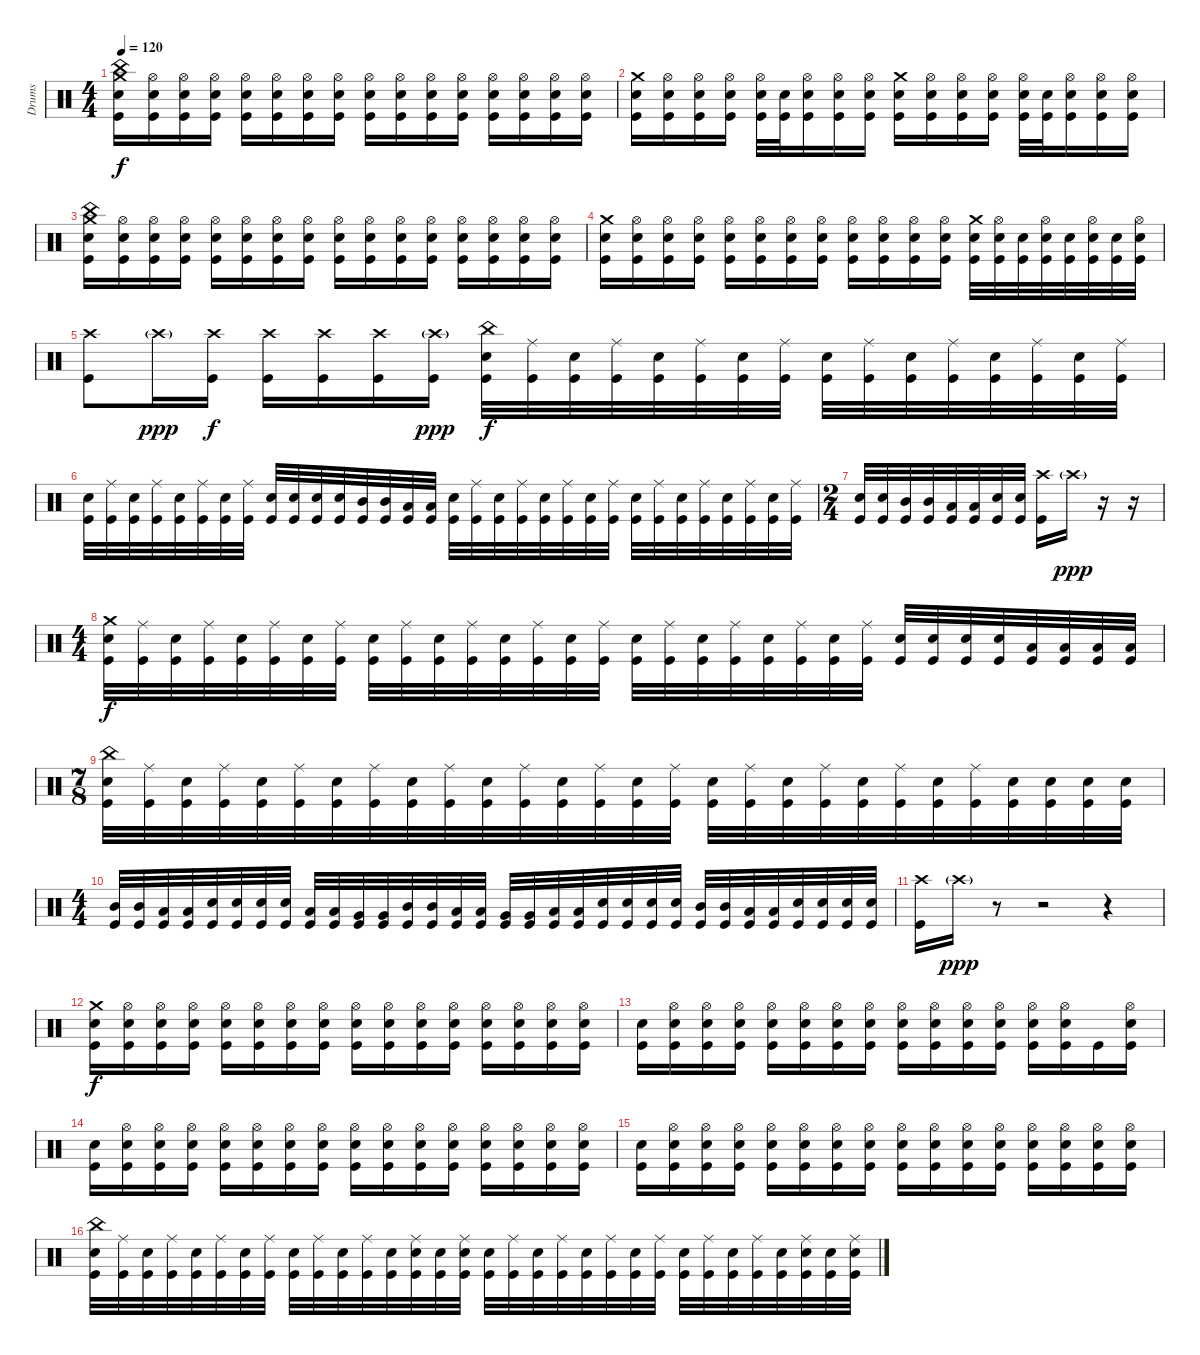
\track ("Drums" "Drums") {instrument percussion}
\staff {score}
\articulation defaults
\ts (4 4)
\tempo 120
\clef neutral
\ks c
("Crash medium (hit)" "China (hit)" "Electric Snare (hit)" "Kick (hit)").16{dy f} ("Hi-Hat (open)" "Electric Snare (hit)" "Kick (hit)").16 ("Hi-Hat (open)" "Electric Snare (hit)" "Kick (hit)").16 ("Hi-Hat (open)" "Electric Snare (hit)" "Kick (hit)").16 ("Hi-Hat (open)" "Electric Snare (hit)" "Kick (hit)").16 ("Hi-Hat (open)" "Electric Snare (hit)" "Kick (hit)").16 ("Hi-Hat (open)" "Electric Snare (hit)" "Kick (hit)").16 ("Hi-Hat (open)" "Electric Snare (hit)" "Kick (hit)").16 ("Hi-Hat (open)" "Electric Snare (hit)" "Kick (hit)").16 ("Hi-Hat (open)" "Electric Snare (hit)" "Kick (hit)").16 ("Hi-Hat (open)" "Electric Snare (hit)" "Kick (hit)").16 ("Hi-Hat (open)" "Electric Snare (hit)" "Kick (hit)").16 ("Hi-Hat (open)" "Electric Snare (hit)" "Kick (hit)").16 ("Hi-Hat (open)" "Electric Snare (hit)" "Kick (hit)").16 ("Hi-Hat (open)" "Electric Snare (hit)" "Kick (hit)").16 ("Hi-Hat (open)" "Electric Snare (hit)" "Kick (hit)").16 |
("Crash medium (hit)" "Electric Snare (hit)" "Kick (hit)").16 ("Hi-Hat (open)" "Electric Snare (hit)" "Kick (hit)").16 ("Hi-Hat (open)" "Electric Snare (hit)" "Kick (hit)").16 ("Hi-Hat (open)" "Electric Snare (hit)" "Kick (hit)").16 ("Hi-Hat (open)" "Electric Snare (hit)" "Kick (hit)").32 ("Electric Snare (hit)" "Kick (hit)").32 ("Hi-Hat (open)" "Electric Snare (hit)" "Kick (hit)").16 ("Hi-Hat (open)" "Electric Snare (hit)" "Kick (hit)").16 ("Hi-Hat (open)" "Electric Snare (hit)" "Kick (hit)").16 ("Crash medium (hit)" "Electric Snare (hit)" "Kick (hit)").16 ("Hi-Hat (open)" "Electric Snare (hit)" "Kick (hit)").16 ("Hi-Hat (open)" "Electric Snare (hit)" "Kick (hit)").16 ("Hi-Hat (open)" "Electric Snare (hit)" "Kick (hit)").16 ("Hi-Hat (open)" "Electric Snare (hit)" "Kick (hit)").32 ("Electric Snare (hit)" "Kick (hit)").32 ("Hi-Hat (open)" "Electric Snare (hit)" "Kick (hit)").16 ("Hi-Hat (open)" "Electric Snare (hit)" "Kick (hit)").16 ("Hi-Hat (open)" "Electric Snare (hit)" "Kick (hit)").16 |
("Crash medium (hit)" "China (hit)" "Electric Snare (hit)" "Kick (hit)").16 ("Hi-Hat (open)" "Electric Snare (hit)" "Kick (hit)").16 ("Hi-Hat (open)" "Electric Snare (hit)" "Kick (hit)").16 ("Hi-Hat (open)" "Electric Snare (hit)" "Kick (hit)").16 ("Hi-Hat (open)" "Electric Snare (hit)" "Kick (hit)").16 ("Hi-Hat (open)" "Electric Snare (hit)" "Kick (hit)").16 ("Hi-Hat (open)" "Electric Snare (hit)" "Kick (hit)").16 ("Hi-Hat (open)" "Electric Snare (hit)" "Kick (hit)").16 ("Hi-Hat (open)" "Electric Snare (hit)" "Kick (hit)").16 ("Hi-Hat (open)" "Electric Snare (hit)" "Kick (hit)").16 ("Hi-Hat (open)" "Electric Snare (hit)" "Kick (hit)").16 ("Hi-Hat (open)" "Electric Snare (hit)" "Kick (hit)").16 ("Hi-Hat (open)" "Electric Snare (hit)" "Kick (hit)").16 ("Hi-Hat (open)" "Electric Snare (hit)" "Kick (hit)").16 ("Hi-Hat (open)" "Electric Snare (hit)" "Kick (hit)").16 ("Hi-Hat (open)" "Electric Snare (hit)" "Kick (hit)").16 |
("Crash medium (hit)" "Electric Snare (hit)" "Kick (hit)").16 ("Hi-Hat (open)" "Electric Snare (hit)" "Kick (hit)").16 ("Hi-Hat (open)" "Electric Snare (hit)" "Kick (hit)").16 ("Hi-Hat (open)" "Electric Snare (hit)" "Kick (hit)").16 ("Hi-Hat (open)" "Electric Snare (hit)" "Kick (hit)").16 ("Hi-Hat (open)" "Electric Snare (hit)" "Kick (hit)").16 ("Hi-Hat (open)" "Electric Snare (hit)" "Kick (hit)").16 ("Hi-Hat (open)" "Electric Snare (hit)" "Kick (hit)").16 ("Hi-Hat (open)" "Electric Snare (hit)" "Kick (hit)").16 ("Hi-Hat (open)" "Electric Snare (hit)" "Kick (hit)").16 ("Hi-Hat (open)" "Electric Snare (hit)" "Kick (hit)").16 ("Hi-Hat (open)" "Electric Snare (hit)" "Kick (hit)").16 ("Crash medium (hit)" "Electric Snare (hit)" "Kick (hit)").32 ("Hi-Hat (open)" "Electric Snare (hit)" "Kick (hit)").32 ("Electric Snare (hit)" "Kick (hit)").32 ("Hi-Hat (open)" "Electric Snare (hit)" "Kick (hit)").32 ("Electric Snare (hit)" "Kick (hit)").32 ("Hi-Hat (open)" "Electric Snare (hit)" "Kick (hit)").32 ("Electric Snare (hit)" "Kick (hit)").32 ("Hi-Hat (open)" "Electric Snare (hit)" "Kick (hit)").32 |
("Crash high (hit)" "Kick (hit)").8 "Crash high (hit)"{g}.16{dy ppp} ("Crash high (hit)" "Kick (hit)").16{dy f} ("Crash high (hit)" "Kick (hit)").16 ("Crash high (hit)" "Kick (hit)").16 ("Crash high (hit)" "Kick (hit)").16 ("Crash high (hit)"{g} "Kick (hit)").16{dy ppp} ("China (hit)" "Electric Snare (hit)" "Kick (hit)").32{dy f} ("Ride (middle)" "Kick (hit)").32 ("Electric Snare (hit)" "Kick (hit)").32 ("Ride (middle)" "Kick (hit)").32 ("Electric Snare (hit)" "Kick (hit)").32 ("Ride (middle)" "Kick (hit)").32 ("Electric Snare (hit)" "Kick (hit)").32 ("Ride (middle)" "Kick (hit)").32 ("Electric Snare (hit)" "Kick (hit)").32 ("Ride (middle)" "Kick (hit)").32 ("Electric Snare (hit)" "Kick (hit)").32 ("Ride (middle)" "Kick (hit)").32 ("Electric Snare (hit)" "Kick (hit)").32 ("Ride (middle)" "Kick (hit)").32 ("Electric Snare (hit)" "Kick (hit)").32 ("Ride (middle)" "Kick (hit)").32 |
("Electric Snare (hit)" "Kick (hit)").32 ("Ride (middle)" "Kick (hit)").32 ("Electric Snare (hit)" "Kick (hit)").32 ("Ride (middle)" "Kick (hit)").32 ("Electric Snare (hit)" "Kick (hit)").32 ("Ride (middle)" "Kick (hit)").32 ("Electric Snare (hit)" "Kick (hit)").32 ("Ride (middle)" "Kick (hit)").32 ("Electric Snare (hit)" "Kick (hit)").32 ("Electric Snare (hit)" "Kick (hit)").32 ("Electric Snare (hit)" "Kick (hit)").32 ("Electric Snare (hit)" "Kick (hit)").32 ("Mid Tom (hit)" "Kick (hit)").32 ("Mid Tom (hit)" "Kick (hit)").32 ("Low Tom (hit)" "Kick (hit)").32 ("Low Tom (hit)" "Kick (hit)").32 ("Electric Snare (hit)" "Kick (hit)").32 ("Ride (middle)" "Kick (hit)").32 ("Electric Snare (hit)" "Kick (hit)").32 ("Ride (middle)" "Kick (hit)").32 ("Electric Snare (hit)" "Kick (hit)").32 ("Ride (middle)" "Kick (hit)").32 ("Electric Snare (hit)" "Kick (hit)").32 ("Ride (middle)" "Kick (hit)").32 ("Electric Snare (hit)" "Kick (hit)").32 ("Ride (middle)" "Kick (hit)").32 ("Electric Snare (hit)" "Kick (hit)").32 ("Ride (middle)" "Kick (hit)").32 ("Electric Snare (hit)" "Kick (hit)").32 ("Ride (middle)" "Kick (hit)").32 ("Electric Snare (hit)" "Kick (hit)").32 ("Ride (middle)" "Kick (hit)").32 |
\ts (2 4)
("Electric Snare (hit)" "Kick (hit)").32 ("Electric Snare (hit)" "Kick (hit)").32 ("Mid Tom (hit)" "Kick (hit)").32 ("Mid Tom (hit)" "Kick (hit)").32 ("Low Tom (hit)" "Kick (hit)").32 ("Low Tom (hit)" "Kick (hit)").32 ("Electric Snare (hit)" "Kick (hit)").32 ("Electric Snare (hit)" "Kick (hit)").32 ("Crash high (hit)" "Kick (hit)").16 "Crash high (hit)"{g}.16{dy ppp} r.16 r.16 |
\ts (4 4)
("Crash medium (hit)" "Electric Snare (hit)" "Kick (hit)").32{dy f} ("Ride (middle)" "Kick (hit)").32 ("Electric Snare (hit)" "Kick (hit)").32 ("Ride (middle)" "Kick (hit)").32 ("Electric Snare (hit)" "Kick (hit)").32 ("Ride (middle)" "Kick (hit)").32 ("Electric Snare (hit)" "Kick (hit)").32 ("Ride (middle)" "Kick (hit)").32 ("Electric Snare (hit)" "Kick (hit)").32 ("Ride (middle)" "Kick (hit)").32 ("Electric Snare (hit)" "Kick (hit)").32 ("Ride (middle)" "Kick (hit)").32 ("Electric Snare (hit)" "Kick (hit)").32 ("Ride (middle)" "Kick (hit)").32 ("Electric Snare (hit)" "Kick (hit)").32 ("Ride (middle)" "Kick (hit)").32 ("Electric Snare (hit)" "Kick (hit)").32 ("Ride (middle)" "Kick (hit)").32 ("Electric Snare (hit)" "Kick (hit)").32 ("Ride (middle)" "Kick (hit)").32 ("Electric Snare (hit)" "Kick (hit)").32 ("Ride (middle)" "Kick (hit)").32 ("Electric Snare (hit)" "Kick (hit)").32 ("Ride (middle)" "Kick (hit)").32 ("Electric Snare (hit)" "Kick (hit)").32 ("Electric Snare (hit)" "Kick (hit)").32 ("Electric Snare (hit)" "Kick (hit)").32 ("Electric Snare (hit)" "Kick (hit)").32 ("Low Tom (hit)" "Kick (hit)").32 ("Low Tom (hit)" "Kick (hit)").32 ("Low Tom (hit)" "Kick (hit)").32 ("Low Tom (hit)" "Kick (hit)").32 |
\ts (7 8)
("China (hit)" "Electric Snare (hit)" "Kick (hit)").32 ("Ride (middle)" "Kick (hit)").32 ("Electric Snare (hit)" "Kick (hit)").32 ("Ride (middle)" "Kick (hit)").32 ("Electric Snare (hit)" "Kick (hit)").32 ("Ride (middle)" "Kick (hit)").32 ("Electric Snare (hit)" "Kick (hit)").32 ("Ride (middle)" "Kick (hit)").32 ("Electric Snare (hit)" "Kick (hit)").32 ("Ride (middle)" "Kick (hit)").32 ("Electric Snare (hit)" "Kick (hit)").32 ("Ride (middle)" "Kick (hit)").32 ("Electric Snare (hit)" "Kick (hit)").32 ("Ride (middle)" "Kick (hit)").32 ("Electric Snare (hit)" "Kick (hit)").32 ("Ride (middle)" "Kick (hit)").32 ("Electric Snare (hit)" "Kick (hit)").32 ("Ride (middle)" "Kick (hit)").32 ("Electric Snare (hit)" "Kick (hit)").32 ("Ride (middle)" "Kick (hit)").32 ("Electric Snare (hit)" "Kick (hit)").32 ("Ride (middle)" "Kick (hit)").32 ("Electric Snare (hit)" "Kick (hit)").32 ("Ride (middle)" "Kick (hit)").32 ("Electric Snare (hit)" "Kick (hit)").32 ("Electric Snare (hit)" "Kick (hit)").32 ("Electric Snare (hit)" "Kick (hit)").32 ("Electric Snare (hit)" "Kick (hit)").32 |
\ts (4 4)
("Mid Tom (hit)" "Kick (hit)").32 ("Mid Tom (hit)" "Kick (hit)").32 ("Low Tom (hit)" "Kick (hit)").32 ("Low Tom (hit)" "Kick (hit)").32 ("Electric Snare (hit)" "Kick (hit)").32 ("Electric Snare (hit)" "Kick (hit)").32 ("Electric Snare (hit)" "Kick (hit)").32 ("Electric Snare (hit)" "Kick (hit)").32 ("Low Tom (hit)" "Kick (hit)").32 ("Low Tom (hit)" "Kick (hit)").32 ("Very Low Tom (hit)" "Kick (hit)").32 ("Very Low Tom (hit)" "Kick (hit)").32 ("Mid Tom (hit)" "Kick (hit)").32 ("Mid Tom (hit)" "Kick (hit)").32 ("Low Tom (hit)" "Kick (hit)").32 ("Low Tom (hit)" "Kick (hit)").32 ("Very Low Tom (hit)" "Kick (hit)").32 ("Very Low Tom (hit)" "Kick (hit)").32 ("Low Tom (hit)" "Kick (hit)").32 ("Low Tom (hit)" "Kick (hit)").32 ("Electric Snare (hit)" "Kick (hit)").32 ("Electric Snare (hit)" "Kick (hit)").32 ("Electric Snare (hit)" "Kick (hit)").32 ("Electric Snare (hit)" "Kick (hit)").32 ("Mid Tom (hit)" "Kick (hit)").32 ("Mid Tom (hit)" "Kick (hit)").32 ("Low Tom (hit)" "Kick (hit)").32 ("Low Tom (hit)" "Kick (hit)").32 ("Electric Snare (hit)" "Kick (hit)").32 ("Electric Snare (hit)" "Kick (hit)").32 ("Electric Snare (hit)" "Kick (hit)").32 ("Electric Snare (hit)" "Kick (hit)").32 |
("Crash high (hit)" "Kick (hit)").16 "Crash high (hit)"{g}.16{dy ppp} r.8 r.2 r.4 |
("Crash medium (hit)" "Electric Snare (hit)" "Kick (hit)").16{dy f} ("Hi-Hat (open)" "Electric Snare (hit)" "Kick (hit)").16 ("Hi-Hat (open)" "Electric Snare (hit)" "Kick (hit)").16 ("Hi-Hat (open)" "Electric Snare (hit)" "Kick (hit)").16 ("Hi-Hat (open)" "Electric Snare (hit)" "Kick (hit)").16 ("Hi-Hat (open)" "Electric Snare (hit)" "Kick (hit)").16 ("Hi-Hat (open)" "Electric Snare (hit)" "Kick (hit)").16 ("Hi-Hat (open)" "Electric Snare (hit)" "Kick (hit)").16 ("Hi-Hat (open)" "Electric Snare (hit)" "Kick (hit)").16 ("Hi-Hat (open)" "Electric Snare (hit)" "Kick (hit)").16 ("Hi-Hat (open)" "Electric Snare (hit)" "Kick (hit)").16 ("Hi-Hat (open)" "Electric Snare (hit)" "Kick (hit)").16 ("Hi-Hat (open)" "Electric Snare (hit)" "Kick (hit)").16 ("Hi-Hat (open)" "Electric Snare (hit)" "Kick (hit)").16 ("Hi-Hat (open)" "Electric Snare (hit)" "Kick (hit)").16 ("Hi-Hat (open)" "Electric Snare (hit)" "Kick (hit)").16 |
("Electric Snare (hit)" "Kick (hit)").16 ("Hi-Hat (open)" "Electric Snare (hit)" "Kick (hit)").16 ("Hi-Hat (open)" "Electric Snare (hit)" "Kick (hit)").16 ("Hi-Hat (open)" "Electric Snare (hit)" "Kick (hit)").16 ("Hi-Hat (open)" "Electric Snare (hit)" "Kick (hit)").16 ("Hi-Hat (open)" "Electric Snare (hit)" "Kick (hit)").16 ("Hi-Hat (open)" "Electric Snare (hit)" "Kick (hit)").16 ("Hi-Hat (open)" "Electric Snare (hit)" "Kick (hit)").16 ("Hi-Hat (open)" "Electric Snare (hit)" "Kick (hit)").16 ("Hi-Hat (open)" "Electric Snare (hit)" "Kick (hit)").16 ("Hi-Hat (open)" "Electric Snare (hit)" "Kick (hit)").16 ("Hi-Hat (open)" "Electric Snare (hit)" "Kick (hit)").16 ("Hi-Hat (open)" "Electric Snare (hit)" "Kick (hit)").16 ("Hi-Hat (open)" "Electric Snare (hit)" "Kick (hit)").16 "Kick (hit)".16 ("Hi-Hat (open)" "Electric Snare (hit)" "Kick (hit)").16 |
("Electric Snare (hit)" "Kick (hit)").16 ("Hi-Hat (open)" "Electric Snare (hit)" "Kick (hit)").16 ("Hi-Hat (open)" "Electric Snare (hit)" "Kick (hit)").16 ("Hi-Hat (open)" "Electric Snare (hit)" "Kick (hit)").16 ("Hi-Hat (open)" "Electric Snare (hit)" "Kick (hit)").16 ("Hi-Hat (open)" "Electric Snare (hit)" "Kick (hit)").16 ("Hi-Hat (open)" "Electric Snare (hit)" "Kick (hit)").16 ("Hi-Hat (open)" "Electric Snare (hit)" "Kick (hit)").16 ("Hi-Hat (open)" "Electric Snare (hit)" "Kick (hit)").16 ("Hi-Hat (open)" "Electric Snare (hit)" "Kick (hit)").16 ("Hi-Hat (open)" "Electric Snare (hit)" "Kick (hit)").16 ("Hi-Hat (open)" "Electric Snare (hit)" "Kick (hit)").16 ("Hi-Hat (open)" "Electric Snare (hit)" "Kick (hit)").16 ("Hi-Hat (open)" "Electric Snare (hit)" "Kick (hit)").16 ("Hi-Hat (open)" "Electric Snare (hit)" "Kick (hit)").16 ("Hi-Hat (open)" "Electric Snare (hit)" "Kick (hit)").16 |
("Electric Snare (hit)" "Kick (hit)").16 ("Hi-Hat (open)" "Electric Snare (hit)" "Kick (hit)").16 ("Hi-Hat (open)" "Electric Snare (hit)" "Kick (hit)").16 ("Hi-Hat (open)" "Electric Snare (hit)" "Kick (hit)").16 ("Hi-Hat (open)" "Electric Snare (hit)" "Kick (hit)").16 ("Hi-Hat (open)" "Electric Snare (hit)" "Kick (hit)").16 ("Hi-Hat (open)" "Electric Snare (hit)" "Kick (hit)").16 ("Hi-Hat (open)" "Electric Snare (hit)" "Kick (hit)").16 ("Hi-Hat (open)" "Electric Snare (hit)" "Kick (hit)").16 ("Hi-Hat (open)" "Electric Snare (hit)" "Kick (hit)").16 ("Hi-Hat (open)" "Electric Snare (hit)" "Kick (hit)").16 ("Hi-Hat (open)" "Electric Snare (hit)" "Kick (hit)").16 ("Hi-Hat (open)" "Electric Snare (hit)" "Kick (hit)").16 ("Hi-Hat (open)" "Electric Snare (hit)" "Kick (hit)").16 ("Hi-Hat (open)" "Electric Snare (hit)" "Kick (hit)").16 ("Hi-Hat (open)" "Electric Snare (hit)" "Kick (hit)").16 |
("China (hit)" "Electric Snare (hit)" "Kick (hit)").32 ("Ride (middle)" "Kick (hit)").32 ("Electric Snare (hit)" "Kick (hit)").32 ("Ride (middle)" "Kick (hit)").32 ("Electric Snare (hit)" "Kick (hit)").32 ("Ride (middle)" "Kick (hit)").32 ("Electric Snare (hit)" "Kick (hit)").32 ("Ride (middle)" "Kick (hit)").32 ("Electric Snare (hit)" "Kick (hit)").32 ("Ride (middle)" "Kick (hit)").32 ("Electric Snare (hit)" "Kick (hit)").32 ("Ride (middle)" "Kick (hit)").32 ("Electric Snare (hit)" "Kick (hit)").32 ("Ride (middle)" "Electric Snare (hit)" "Kick (hit)").32 ("Electric Snare (hit)" "Kick (hit)").32 ("Ride (middle)" "Electric Snare (hit)" "Kick (hit)").32 ("Electric Snare (hit)" "Kick (hit)").32 ("Ride (middle)" "Kick (hit)").32 ("Electric Snare (hit)" "Kick (hit)").32 ("Ride (middle)" "Kick (hit)").32 ("Electric Snare (hit)" "Kick (hit)").32 ("Ride (middle)" "Kick (hit)").32 ("Electric Snare (hit)" "Kick (hit)").32 ("Ride (middle)" "Kick (hit)").32 ("Electric Snare (hit)" "Kick (hit)").32 ("Ride (middle)" "Kick (hit)").32 ("Electric Snare (hit)" "Kick (hit)").32 ("Ride (middle)" "Kick (hit)").32 ("Electric Snare (hit)" "Kick (hit)").32 ("Ride (middle)" "Electric Snare (hit)" "Kick (hit)").32 ("Electric Snare (hit)" "Kick (hit)").32 ("Ride (middle)" "Electric Snare (hit)" "Kick (hit)").32
